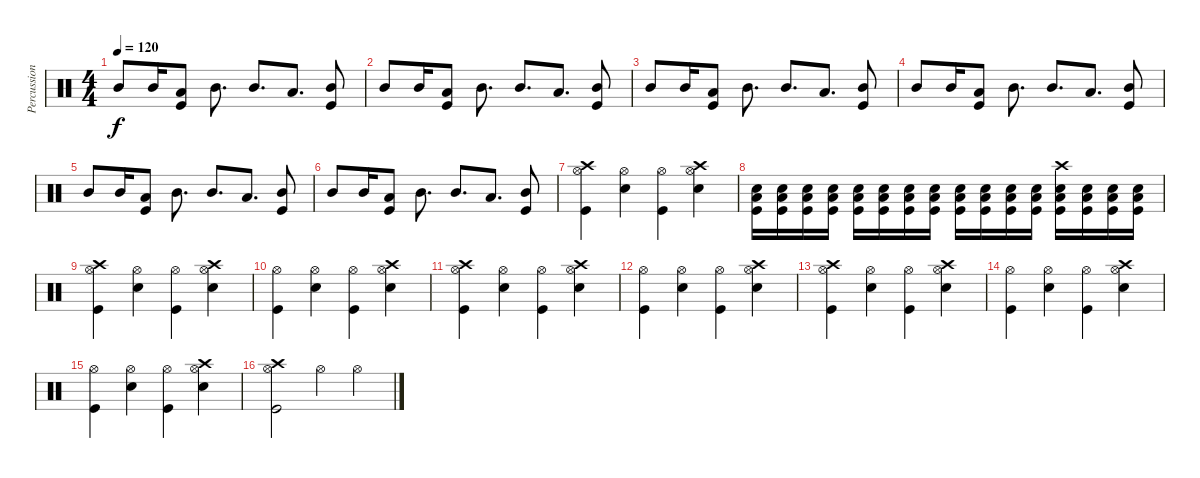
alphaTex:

\track ("Percussion" "Percussion") {instrument percussion}
\staff {score}
\articulation defaults
\ts (4 4)
\tempo 120
\clef neutral
\ks c "Mid Tom (hit)".8{dy f} "Mid Tom (hit)".16
("Low Tom (hit)" "Kick (hit)").8 "Mid Tom (hit)".8{d} "Mid Tom (hit)".8{d} "Low Tom (hit)".8{d} ("Mid Tom (hit)" "Kick (hit)").8 |
"Mid Tom (hit)".8 "Mid Tom (hit)".16 ("Low Tom (hit)" "Kick (hit)").8 "Mid Tom (hit)".8{d} "Mid Tom (hit)".8{d} "Low Tom (hit)".8{d} ("Mid Tom (hit)" "Kick (hit)").8 |
"Mid Tom (hit)".8 "Mid Tom (hit)".16 ("Low Tom (hit)" "Kick (hit)").8 "Mid Tom (hit)".8{d} "Mid Tom (hit)".8{d} "Low Tom (hit)".8{d} ("Mid Tom (hit)" "Kick (hit)").8 |
"Mid Tom (hit)".8 "Mid Tom (hit)".16 ("Low Tom (hit)" "Kick (hit)").8 "Mid Tom (hit)".8{d} "Mid Tom (hit)".8{d} "Low Tom (hit)".8{d} ("Mid Tom (hit)" "Kick (hit)").8 |
"Mid Tom (hit)".8 "Mid Tom (hit)".16 ("Low Tom (hit)" "Kick (hit)").8 "Mid Tom (hit)".8{d} "Mid Tom (hit)".8{d} "Low Tom (hit)".8{d} ("Mid Tom (hit)" "Kick (hit)").8 |
"Mid Tom (hit)".8 "Mid Tom (hit)".16 ("Low Tom (hit)" "Kick (hit)").8 "Mid Tom (hit)".8{d} "Mid Tom (hit)".8{d} "Low Tom (hit)".8{d} ("Mid Tom (hit)" "Kick (hit)").8 |
("Crash high (hit)" "Hi-Hat (open)" "Kick (hit)").4 ("Hi-Hat (open)" "Snare (hit) 2").4 ("Hi-Hat (open)" "Kick (hit)").4 ("Crash high (hit)" "Hi-Hat (open)" "Snare (hit) 2").4 |
("Low Tom (hit)" "Snare (hit) 2" "Kick (hit)").16 ("Low Tom (hit)" "Snare (hit) 2" "Kick (hit)").16 ("Low Tom (hit)" "Snare (hit) 2" "Kick (hit)").16 ("Low Tom (hit)" "Snare (hit) 2" "Kick (hit)").16 ("Low Tom (hit)" "Snare (hit) 2" "Kick (hit)").16 ("Low Tom (hit)" "Snare (hit) 2" "Kick (hit)").16 ("Low Tom (hit)" "Snare (hit) 2" "Kick (hit)").16 ("Low Tom (hit)" "Snare (hit) 2" "Kick (hit)").16 ("Low Tom (hit)" "Snare (hit) 2" "Kick (hit)").16 ("Low Tom (hit)" "Snare (hit) 2" "Kick (hit)").16 ("Low Tom (hit)" "Snare (hit) 2" "Kick (hit)").16 ("Low Tom (hit)" "Snare (hit) 2" "Kick (hit)").16 ("Crash high (hit)" "Low Tom (hit)" "Snare (hit) 2" "Kick (hit)").16 ("Low Tom (hit)" "Snare (hit) 2" "Kick (hit)").16 ("Low Tom (hit)" "Snare (hit) 2" "Kick (hit)").16 ("Low Tom (hit)" "Snare (hit) 2" "Kick (hit)").16 |
("Crash high (hit)" "Hi-Hat (open)" "Kick (hit)").4 ("Hi-Hat (open)" "Snare (hit) 2").4 ("Hi-Hat (open)" "Kick (hit)").4 ("Crash high (hit)" "Hi-Hat (open)" "Snare (hit) 2").4 |
("Hi-Hat (open)" "Kick (hit)").4 ("Hi-Hat (open)" "Snare (hit) 2").4 ("Hi-Hat (open)" "Kick (hit)").4 ("Crash high (hit)" "Hi-Hat (open)" "Snare (hit) 2").4 |
("Crash high (hit)" "Hi-Hat (open)" "Kick (hit)").4 ("Hi-Hat (open)" "Snare (hit) 2").4 ("Hi-Hat (open)" "Kick (hit)").4 ("Crash high (hit)" "Hi-Hat (open)" "Snare (hit) 2").4 |
("Hi-Hat (open)" "Kick (hit)").4 ("Hi-Hat (open)" "Snare (hit) 2").4 ("Hi-Hat (open)" "Kick (hit)").4 ("Crash high (hit)" "Hi-Hat (open)" "Snare (hit) 2").4 |
("Crash high (hit)" "Hi-Hat (open)" "Kick (hit)").4 ("Hi-Hat (open)" "Snare (hit) 2").4 ("Hi-Hat (open)" "Kick (hit)").4 ("Crash high (hit)" "Hi-Hat (open)" "Snare (hit) 2").4 |
("Hi-Hat (open)" "Kick (hit)").4 ("Hi-Hat (open)" "Snare (hit) 2").4 ("Hi-Hat (open)" "Kick (hit)").4 ("Crash high (hit)" "Hi-Hat (open)" "Snare (hit) 2").4 |
("Hi-Hat (open)" "Kick (hit)").4 ("Hi-Hat (open)" "Snare (hit) 2").4 ("Hi-Hat (open)" "Kick (hit)").4 ("Crash high (hit)" "Hi-Hat (open)" "Snare (hit) 2").4 |
("Crash high (hit)" "Hi-Hat (open)" "Kick (hit)").2 "Hi-Hat (open)".4 "Hi-Hat (open)".4
